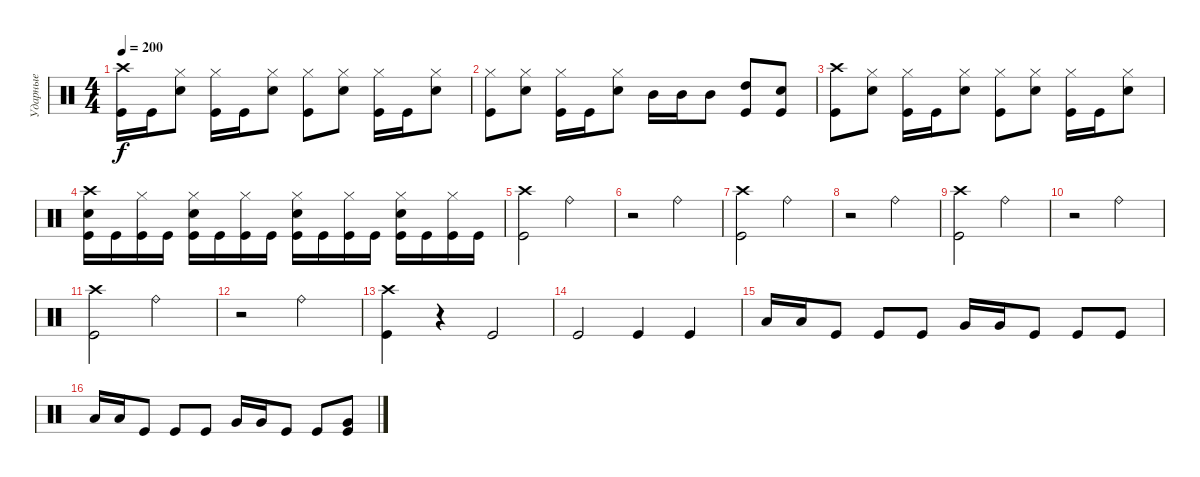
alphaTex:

\track ("Ударные" "Ударные") {instrument percussion}
\staff {score}
\articulation defaults
\ts (4 4)
\tempo 200
\clef neutral
\ks c
("Crash high (hit)" "Kick (hit)").16{dy f} "Kick (hit)".16 ("Hi-Hat (closed)" "Electric Snare (hit)").8 ("Hi-Hat (closed)" "Kick (hit)").16 "Kick (hit)".16 ("Hi-Hat (closed)" "Electric Snare (hit)").8 ("Hi-Hat (closed)" "Kick (hit)").8 ("Hi-Hat (closed)" "Electric Snare (hit)").8 ("Hi-Hat (closed)" "Kick (hit)").16 "Kick (hit)".16 ("Hi-Hat (closed)" "Electric Snare (hit)").8 |
("Hi-Hat (closed)" "Kick (hit)").8 ("Hi-Hat (closed)" "Electric Snare (hit)").8 ("Hi-Hat (closed)" "Kick (hit)").16 "Kick (hit)".16 ("Hi-Hat (closed)" "Electric Snare (hit)").8 "Mid Tom (hit)".16 "Mid Tom (hit)".16 "Mid Tom (hit)".8 ("High Tom (hit)" "Kick (hit)").8 ("Electric Snare (hit)" "Kick (hit)").8 |
("Crash high (hit)" "Kick (hit)").8 ("Hi-Hat (closed)" "Electric Snare (hit)").8 ("Hi-Hat (closed)" "Kick (hit)").16 "Kick (hit)".16 ("Hi-Hat (closed)" "Electric Snare (hit)").8 ("Hi-Hat (closed)" "Kick (hit)").8 ("Hi-Hat (closed)" "Electric Snare (hit)").8 ("Hi-Hat (closed)" "Kick (hit)").16 "Kick (hit)".16 ("Hi-Hat (closed)" "Electric Snare (hit)").8 |
("Crash high (hit)" "Electric Snare (hit)" "Kick (hit)").16 "Kick (hit)".16 ("Hi-Hat (closed)" "Kick (hit)").16 "Kick (hit)".16 ("Hi-Hat (closed)" "Electric Snare (hit)" "Kick (hit)").16 "Kick (hit)".16 ("Hi-Hat (closed)" "Kick (hit)").16 "Kick (hit)".16 ("Hi-Hat (closed)" "Electric Snare (hit)" "Kick (hit)").16 "Kick (hit)".16 ("Hi-Hat (closed)" "Kick (hit)").16 "Kick (hit)".16 ("Hi-Hat (closed)" "Electric Snare (hit)" "Kick (hit)").16 "Kick (hit)".16 ("Hi-Hat (closed)" "Kick (hit)").16 "Kick (hit)".16 |
("Crash high (hit)" "Kick (hit)").2 "Ride (bell)".2 |
r.2 "Ride (bell)".2 |
("Crash high (hit)" "Kick (hit)").2 "Ride (bell)".2 |
r.2 "Ride (bell)".2 |
("Crash high (hit)" "Kick (hit)").2 "Ride (bell)".2 |
r.2 "Ride (bell)".2 |
("Crash high (hit)" "Kick (hit)").2 "Ride (bell)".2 |
r.2 "Ride (bell)".2 |
("Crash high (hit)" "Kick (hit)").4 r.4 "Kick (hit)".2 |
"Kick (hit)".2 "Kick (hit)".4 "Kick (hit)".4 |
"Low Tom (hit)".16 "Low Tom (hit)".16 "Kick (hit)".8 "Kick (hit)".8 "Kick (hit)".8 "Very Low Tom (hit)".16 "Very Low Tom (hit)".16 "Kick (hit)".8 "Kick (hit)".8 "Kick (hit)".8 |
"Low Tom (hit)".16 "Low Tom (hit)".16 "Kick (hit)".8 "Kick (hit)".8 "Kick (hit)".8 "Very Low Tom (hit)".16 "Very Low Tom (hit)".16 "Kick (hit)".8 "Kick (hit)".8 ("Very Low Tom (hit)" "Kick (hit)").8
